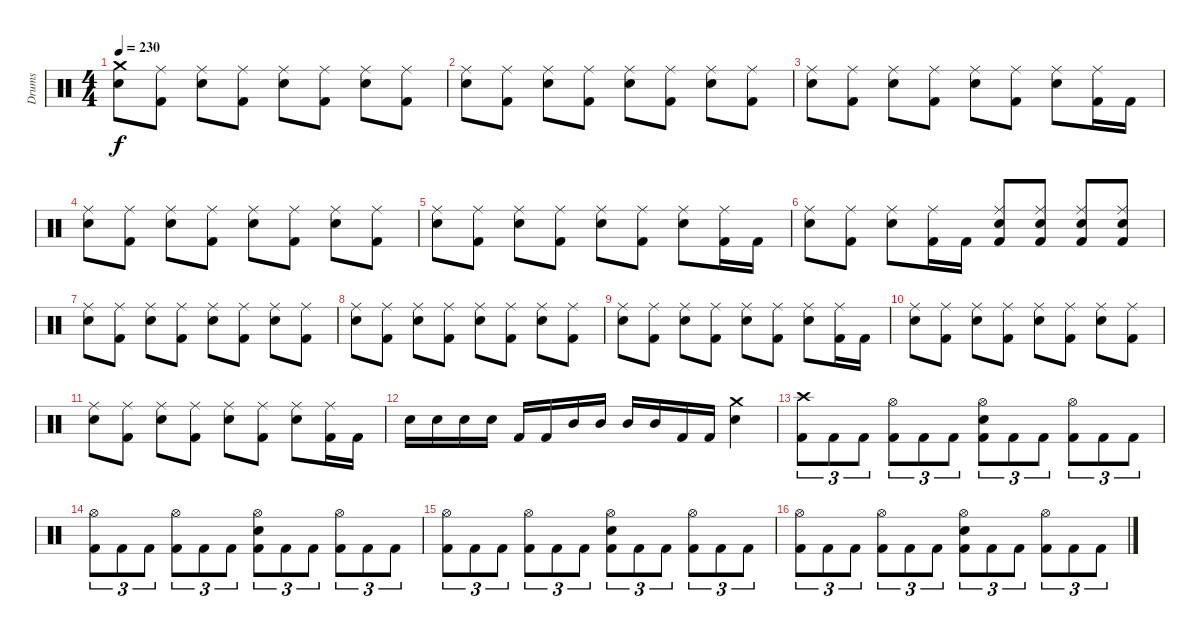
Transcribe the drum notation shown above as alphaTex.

\track ("Drums" "Drums") {instrument percussion}
\staff {score}
\articulation defaults
\ts (4 4)
\tempo 230
\clef neutral
\ks c
("Crash medium (hit)" "Electric Snare (hit)").8{dy f} ("Ride (middle)" "Kick (hit) 2").8 ("Ride (middle)" "Electric Snare (hit)").8 ("Ride (middle)" "Kick (hit) 2").8 ("Ride (middle)" "Electric Snare (hit)").8 ("Ride (middle)" "Kick (hit) 2").8 ("Ride (middle)" "Electric Snare (hit)").8 ("Ride (middle)" "Kick (hit) 2").8 |
("Ride (middle)" "Electric Snare (hit)").8 ("Ride (middle)" "Kick (hit) 2").8 ("Ride (middle)" "Electric Snare (hit)").8 ("Ride (middle)" "Kick (hit) 2").8 ("Ride (middle)" "Electric Snare (hit)").8 ("Ride (middle)" "Kick (hit) 2").8 ("Ride (middle)" "Electric Snare (hit)").8 ("Ride (middle)" "Kick (hit) 2").8 |
("Ride (middle)" "Electric Snare (hit)").8 ("Ride (middle)" "Kick (hit) 2").8 ("Ride (middle)" "Electric Snare (hit)").8 ("Ride (middle)" "Kick (hit) 2").8 ("Ride (middle)" "Electric Snare (hit)").8 ("Ride (middle)" "Kick (hit) 2").8 ("Ride (middle)" "Electric Snare (hit)").8 ("Ride (middle)" "Kick (hit) 2").16 "Kick (hit) 2".16 |
("Ride (middle)" "Electric Snare (hit)").8 ("Ride (middle)" "Kick (hit) 2").8 ("Ride (middle)" "Electric Snare (hit)").8 ("Ride (middle)" "Kick (hit) 2").8 ("Ride (middle)" "Electric Snare (hit)").8 ("Ride (middle)" "Kick (hit) 2").8 ("Ride (middle)" "Electric Snare (hit)").8 ("Ride (middle)" "Kick (hit) 2").8 |
("Ride (middle)" "Electric Snare (hit)").8 ("Ride (middle)" "Kick (hit) 2").8 ("Ride (middle)" "Electric Snare (hit)").8 ("Ride (middle)" "Kick (hit) 2").8 ("Ride (middle)" "Electric Snare (hit)").8 ("Ride (middle)" "Kick (hit) 2").8 ("Ride (middle)" "Electric Snare (hit)").8 ("Ride (middle)" "Kick (hit) 2").16 "Kick (hit) 2".16 |
("Ride (middle)" "Electric Snare (hit)").8 ("Ride (middle)" "Kick (hit) 2").8 ("Ride (middle)" "Electric Snare (hit)").8 ("Ride (middle)" "Kick (hit) 2").16 "Kick (hit) 2".16 ("Ride (middle)" "Electric Snare (hit)" "Kick (hit) 2").8 ("Ride (middle)" "Electric Snare (hit)" "Kick (hit) 2").8 ("Ride (middle)" "Electric Snare (hit)" "Kick (hit) 2").8 ("Ride (middle)" "Electric Snare (hit)" "Kick (hit) 2").8 |
("Ride (middle)" "Electric Snare (hit)").8 ("Ride (middle)" "Kick (hit) 2").8 ("Ride (middle)" "Electric Snare (hit)").8 ("Ride (middle)" "Kick (hit) 2").8 ("Ride (middle)" "Electric Snare (hit)").8 ("Ride (middle)" "Kick (hit) 2").8 ("Ride (middle)" "Electric Snare (hit)").8 ("Ride (middle)" "Kick (hit) 2").8 |
("Ride (middle)" "Electric Snare (hit)").8 ("Ride (middle)" "Kick (hit) 2").8 ("Ride (middle)" "Electric Snare (hit)").8 ("Ride (middle)" "Kick (hit) 2").8 ("Ride (middle)" "Electric Snare (hit)").8 ("Ride (middle)" "Kick (hit) 2").8 ("Ride (middle)" "Electric Snare (hit)").8 ("Ride (middle)" "Kick (hit) 2").8 |
("Ride (middle)" "Electric Snare (hit)").8 ("Ride (middle)" "Kick (hit) 2").8 ("Ride (middle)" "Electric Snare (hit)").8 ("Ride (middle)" "Kick (hit) 2").8 ("Ride (middle)" "Electric Snare (hit)").8 ("Ride (middle)" "Kick (hit) 2").8 ("Ride (middle)" "Electric Snare (hit)").8 ("Ride (middle)" "Kick (hit) 2").16 "Kick (hit) 2".16 |
("Ride (middle)" "Electric Snare (hit)").8 ("Ride (middle)" "Kick (hit) 2").8 ("Ride (middle)" "Electric Snare (hit)").8 ("Ride (middle)" "Kick (hit) 2").8 ("Ride (middle)" "Electric Snare (hit)").8 ("Ride (middle)" "Kick (hit) 2").8 ("Ride (middle)" "Electric Snare (hit)").8 ("Ride (middle)" "Kick (hit) 2").8 |
("Ride (middle)" "Electric Snare (hit)").8 ("Ride (middle)" "Kick (hit) 2").8 ("Ride (middle)" "Electric Snare (hit)").8 ("Ride (middle)" "Kick (hit) 2").8 ("Ride (middle)" "Electric Snare (hit)").8 ("Ride (middle)" "Kick (hit) 2").8 ("Ride (middle)" "Electric Snare (hit)").8 ("Ride (middle)" "Kick (hit) 2").16 "Kick (hit) 2".16 |
"Electric Snare (hit)".16 "Electric Snare (hit)".16 "Electric Snare (hit)".16 "Electric Snare (hit)".16 "Kick (hit) 2".16 "Kick (hit) 2".16 "Mid Tom (hit)".16 "Mid Tom (hit)".16 "Mid Tom (hit)".16 "Mid Tom (hit)".16 "Kick (hit) 2".16 "Kick (hit) 2".16 ("Crash medium (hit)" "Electric Snare (hit)").4 |
("Crash high (hit)" "Kick (hit) 2").8{tu (3 2)} "Kick (hit) 2".8{tu (3 2)} "Kick (hit) 2".8{tu (3 2)} ("Hi-Hat (open)" "Kick (hit) 2").8{tu (3 2)} "Kick (hit) 2".8{tu (3 2)} "Kick (hit) 2".8{tu (3 2)} ("Hi-Hat (open)" "Electric Snare (hit)" "Kick (hit) 2").8{tu (3 2)} "Kick (hit) 2".8{tu (3 2)} "Kick (hit) 2".8{tu (3 2)} ("Hi-Hat (open)" "Kick (hit) 2").8{tu (3 2)} "Kick (hit) 2".8{tu (3 2)} "Kick (hit) 2".8{tu (3 2)} |
("Hi-Hat (open)" "Kick (hit) 2").8{tu (3 2)} "Kick (hit) 2".8{tu (3 2)} "Kick (hit) 2".8{tu (3 2)} ("Hi-Hat (open)" "Kick (hit) 2").8{tu (3 2)} "Kick (hit) 2".8{tu (3 2)} "Kick (hit) 2".8{tu (3 2)} ("Hi-Hat (open)" "Electric Snare (hit)" "Kick (hit) 2").8{tu (3 2)} "Kick (hit) 2".8{tu (3 2)} "Kick (hit) 2".8{tu (3 2)} ("Hi-Hat (open)" "Kick (hit) 2").8{tu (3 2)} "Kick (hit) 2".8{tu (3 2)} "Kick (hit) 2".8{tu (3 2)} |
("Hi-Hat (open)" "Kick (hit) 2").8{tu (3 2)} "Kick (hit) 2".8{tu (3 2)} "Kick (hit) 2".8{tu (3 2)} ("Hi-Hat (open)" "Kick (hit) 2").8{tu (3 2)} "Kick (hit) 2".8{tu (3 2)} "Kick (hit) 2".8{tu (3 2)} ("Hi-Hat (open)" "Electric Snare (hit)" "Kick (hit) 2").8{tu (3 2)} "Kick (hit) 2".8{tu (3 2)} "Kick (hit) 2".8{tu (3 2)} ("Hi-Hat (open)" "Kick (hit) 2").8{tu (3 2)} "Kick (hit) 2".8{tu (3 2)} "Kick (hit) 2".8{tu (3 2)} |
("Hi-Hat (open)" "Kick (hit) 2").8{tu (3 2)} "Kick (hit) 2".8{tu (3 2)} "Kick (hit) 2".8{tu (3 2)} ("Hi-Hat (open)" "Kick (hit) 2").8{tu (3 2)} "Kick (hit) 2".8{tu (3 2)} "Kick (hit) 2".8{tu (3 2)} ("Hi-Hat (open)" "Electric Snare (hit)" "Kick (hit) 2").8{tu (3 2)} "Kick (hit) 2".8{tu (3 2)} "Kick (hit) 2".8{tu (3 2)} ("Hi-Hat (open)" "Kick (hit) 2").8{tu (3 2)} "Kick (hit) 2".8{tu (3 2)} "Kick (hit) 2".8{tu (3 2)}
